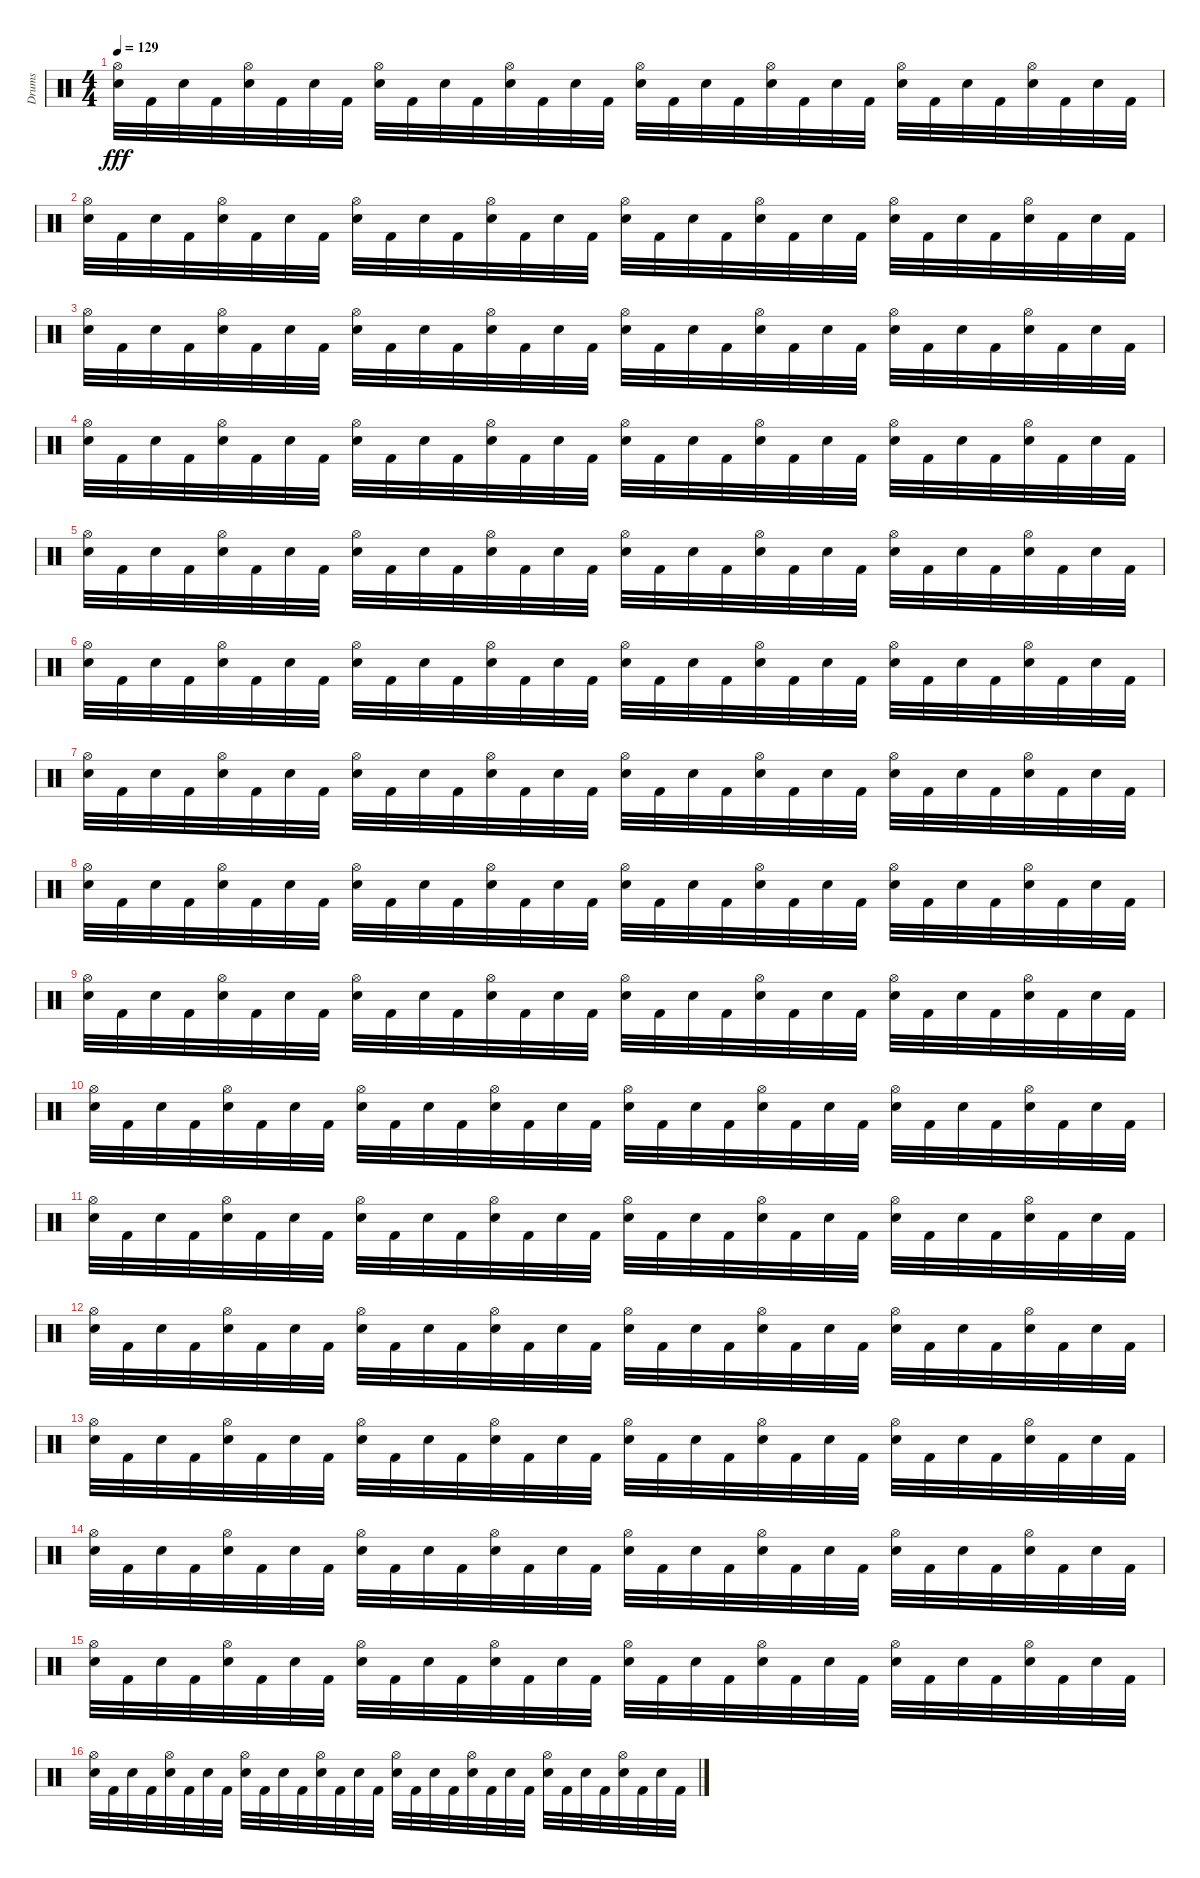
\track ("Drums" "Drums") {instrument percussion}
\staff {score}
\articulation defaults
\ts (4 4)
\tempo 129
\clef neutral
\ks c
("Snare (hit) 2" "Hi-Hat (open)").32{dy fff} "Kick (hit) 2".32 "Snare (hit) 2".32 "Kick (hit) 2".32 ("Snare (hit) 2" "Hi-Hat (open)").32 "Kick (hit) 2".32 "Snare (hit) 2".32 "Kick (hit) 2".32 ("Snare (hit) 2" "Hi-Hat (open)").32 "Kick (hit) 2".32 "Snare (hit) 2".32 "Kick (hit) 2".32 ("Snare (hit) 2" "Hi-Hat (open)").32 "Kick (hit) 2".32 "Snare (hit) 2".32 "Kick (hit) 2".32 ("Snare (hit) 2" "Hi-Hat (open)").32 "Kick (hit) 2".32 "Snare (hit) 2".32 "Kick (hit) 2".32 ("Snare (hit) 2" "Hi-Hat (open)").32 "Kick (hit) 2".32 "Snare (hit) 2".32 "Kick (hit) 2".32 ("Snare (hit) 2" "Hi-Hat (open)").32 "Kick (hit) 2".32 "Snare (hit) 2".32 "Kick (hit) 2".32 ("Snare (hit) 2" "Hi-Hat (open)").32 "Kick (hit) 2".32 "Snare (hit) 2".32 "Kick (hit) 2".32 |
("Snare (hit) 2" "Hi-Hat (open)").32 "Kick (hit) 2".32 "Snare (hit) 2".32 "Kick (hit) 2".32 ("Snare (hit) 2" "Hi-Hat (open)").32 "Kick (hit) 2".32 "Snare (hit) 2".32 "Kick (hit) 2".32 ("Snare (hit) 2" "Hi-Hat (open)").32 "Kick (hit) 2".32 "Snare (hit) 2".32 "Kick (hit) 2".32 ("Snare (hit) 2" "Hi-Hat (open)").32 "Kick (hit) 2".32 "Snare (hit) 2".32 "Kick (hit) 2".32 ("Snare (hit) 2" "Hi-Hat (open)").32 "Kick (hit) 2".32 "Snare (hit) 2".32 "Kick (hit) 2".32 ("Snare (hit) 2" "Hi-Hat (open)").32 "Kick (hit) 2".32 "Snare (hit) 2".32 "Kick (hit) 2".32 ("Snare (hit) 2" "Hi-Hat (open)").32 "Kick (hit) 2".32 "Snare (hit) 2".32 "Kick (hit) 2".32 ("Snare (hit) 2" "Hi-Hat (open)").32 "Kick (hit) 2".32 "Snare (hit) 2".32 "Kick (hit) 2".32 |
("Snare (hit) 2" "Hi-Hat (open)").32 "Kick (hit) 2".32 "Snare (hit) 2".32 "Kick (hit) 2".32 ("Snare (hit) 2" "Hi-Hat (open)").32 "Kick (hit) 2".32 "Snare (hit) 2".32 "Kick (hit) 2".32 ("Snare (hit) 2" "Hi-Hat (open)").32 "Kick (hit) 2".32 "Snare (hit) 2".32 "Kick (hit) 2".32 ("Snare (hit) 2" "Hi-Hat (open)").32 "Kick (hit) 2".32 "Snare (hit) 2".32 "Kick (hit) 2".32 ("Snare (hit) 2" "Hi-Hat (open)").32 "Kick (hit) 2".32 "Snare (hit) 2".32 "Kick (hit) 2".32 ("Snare (hit) 2" "Hi-Hat (open)").32 "Kick (hit) 2".32 "Snare (hit) 2".32 "Kick (hit) 2".32 ("Snare (hit) 2" "Hi-Hat (open)").32 "Kick (hit) 2".32 "Snare (hit) 2".32 "Kick (hit) 2".32 ("Snare (hit) 2" "Hi-Hat (open)").32 "Kick (hit) 2".32 "Snare (hit) 2".32 "Kick (hit) 2".32 |
("Snare (hit) 2" "Hi-Hat (open)").32 "Kick (hit) 2".32 "Snare (hit) 2".32 "Kick (hit) 2".32 ("Snare (hit) 2" "Hi-Hat (open)").32 "Kick (hit) 2".32 "Snare (hit) 2".32 "Kick (hit) 2".32 ("Snare (hit) 2" "Hi-Hat (open)").32 "Kick (hit) 2".32 "Snare (hit) 2".32 "Kick (hit) 2".32 ("Snare (hit) 2" "Hi-Hat (open)").32 "Kick (hit) 2".32 "Snare (hit) 2".32 "Kick (hit) 2".32 ("Snare (hit) 2" "Hi-Hat (open)").32 "Kick (hit) 2".32 "Snare (hit) 2".32 "Kick (hit) 2".32 ("Snare (hit) 2" "Hi-Hat (open)").32 "Kick (hit) 2".32 "Snare (hit) 2".32 "Kick (hit) 2".32 ("Snare (hit) 2" "Hi-Hat (open)").32 "Kick (hit) 2".32 "Snare (hit) 2".32 "Kick (hit) 2".32 ("Snare (hit) 2" "Hi-Hat (open)").32 "Kick (hit) 2".32 "Snare (hit) 2".32 "Kick (hit) 2".32 |
("Snare (hit) 2" "Hi-Hat (open)").32 "Kick (hit) 2".32 "Snare (hit) 2".32 "Kick (hit) 2".32 ("Snare (hit) 2" "Hi-Hat (open)").32 "Kick (hit) 2".32 "Snare (hit) 2".32 "Kick (hit) 2".32 ("Snare (hit) 2" "Hi-Hat (open)").32 "Kick (hit) 2".32 "Snare (hit) 2".32 "Kick (hit) 2".32 ("Snare (hit) 2" "Hi-Hat (open)").32 "Kick (hit) 2".32 "Snare (hit) 2".32 "Kick (hit) 2".32 ("Snare (hit) 2" "Hi-Hat (open)").32 "Kick (hit) 2".32 "Snare (hit) 2".32 "Kick (hit) 2".32 ("Snare (hit) 2" "Hi-Hat (open)").32 "Kick (hit) 2".32 "Snare (hit) 2".32 "Kick (hit) 2".32 ("Snare (hit) 2" "Hi-Hat (open)").32 "Kick (hit) 2".32 "Snare (hit) 2".32 "Kick (hit) 2".32 ("Snare (hit) 2" "Hi-Hat (open)").32 "Kick (hit) 2".32 "Snare (hit) 2".32 "Kick (hit) 2".32 |
("Snare (hit) 2" "Hi-Hat (open)").32 "Kick (hit) 2".32 "Snare (hit) 2".32 "Kick (hit) 2".32 ("Snare (hit) 2" "Hi-Hat (open)").32 "Kick (hit) 2".32 "Snare (hit) 2".32 "Kick (hit) 2".32 ("Snare (hit) 2" "Hi-Hat (open)").32 "Kick (hit) 2".32 "Snare (hit) 2".32 "Kick (hit) 2".32 ("Snare (hit) 2" "Hi-Hat (open)").32 "Kick (hit) 2".32 "Snare (hit) 2".32 "Kick (hit) 2".32 ("Snare (hit) 2" "Hi-Hat (open)").32 "Kick (hit) 2".32 "Snare (hit) 2".32 "Kick (hit) 2".32 ("Snare (hit) 2" "Hi-Hat (open)").32 "Kick (hit) 2".32 "Snare (hit) 2".32 "Kick (hit) 2".32 ("Snare (hit) 2" "Hi-Hat (open)").32 "Kick (hit) 2".32 "Snare (hit) 2".32 "Kick (hit) 2".32 ("Snare (hit) 2" "Hi-Hat (open)").32 "Kick (hit) 2".32 "Snare (hit) 2".32 "Kick (hit) 2".32 |
("Snare (hit) 2" "Hi-Hat (open)").32 "Kick (hit) 2".32 "Snare (hit) 2".32 "Kick (hit) 2".32 ("Snare (hit) 2" "Hi-Hat (open)").32 "Kick (hit) 2".32 "Snare (hit) 2".32 "Kick (hit) 2".32 ("Snare (hit) 2" "Hi-Hat (open)").32 "Kick (hit) 2".32 "Snare (hit) 2".32 "Kick (hit) 2".32 ("Snare (hit) 2" "Hi-Hat (open)").32 "Kick (hit) 2".32 "Snare (hit) 2".32 "Kick (hit) 2".32 ("Snare (hit) 2" "Hi-Hat (open)").32 "Kick (hit) 2".32 "Snare (hit) 2".32 "Kick (hit) 2".32 ("Snare (hit) 2" "Hi-Hat (open)").32 "Kick (hit) 2".32 "Snare (hit) 2".32 "Kick (hit) 2".32 ("Snare (hit) 2" "Hi-Hat (open)").32 "Kick (hit) 2".32 "Snare (hit) 2".32 "Kick (hit) 2".32 ("Snare (hit) 2" "Hi-Hat (open)").32 "Kick (hit) 2".32 "Snare (hit) 2".32 "Kick (hit) 2".32 |
("Snare (hit) 2" "Hi-Hat (open)").32 "Kick (hit) 2".32 "Snare (hit) 2".32 "Kick (hit) 2".32 ("Snare (hit) 2" "Hi-Hat (open)").32 "Kick (hit) 2".32 "Snare (hit) 2".32 "Kick (hit) 2".32 ("Snare (hit) 2" "Hi-Hat (open)").32 "Kick (hit) 2".32 "Snare (hit) 2".32 "Kick (hit) 2".32 ("Snare (hit) 2" "Hi-Hat (open)").32 "Kick (hit) 2".32 "Snare (hit) 2".32 "Kick (hit) 2".32 ("Snare (hit) 2" "Hi-Hat (open)").32 "Kick (hit) 2".32 "Snare (hit) 2".32 "Kick (hit) 2".32 ("Snare (hit) 2" "Hi-Hat (open)").32 "Kick (hit) 2".32 "Snare (hit) 2".32 "Kick (hit) 2".32 ("Snare (hit) 2" "Hi-Hat (open)").32 "Kick (hit) 2".32 "Snare (hit) 2".32 "Kick (hit) 2".32 ("Snare (hit) 2" "Hi-Hat (open)").32 "Kick (hit) 2".32 "Snare (hit) 2".32 "Kick (hit) 2".32 |
("Snare (hit) 2" "Hi-Hat (open)").32 "Kick (hit) 2".32 "Snare (hit) 2".32 "Kick (hit) 2".32 ("Snare (hit) 2" "Hi-Hat (open)").32 "Kick (hit) 2".32 "Snare (hit) 2".32 "Kick (hit) 2".32 ("Snare (hit) 2" "Hi-Hat (open)").32 "Kick (hit) 2".32 "Snare (hit) 2".32 "Kick (hit) 2".32 ("Snare (hit) 2" "Hi-Hat (open)").32 "Kick (hit) 2".32 "Snare (hit) 2".32 "Kick (hit) 2".32 ("Snare (hit) 2" "Hi-Hat (open)").32 "Kick (hit) 2".32 "Snare (hit) 2".32 "Kick (hit) 2".32 ("Snare (hit) 2" "Hi-Hat (open)").32 "Kick (hit) 2".32 "Snare (hit) 2".32 "Kick (hit) 2".32 ("Snare (hit) 2" "Hi-Hat (open)").32 "Kick (hit) 2".32 "Snare (hit) 2".32 "Kick (hit) 2".32 ("Snare (hit) 2" "Hi-Hat (open)").32 "Kick (hit) 2".32 "Snare (hit) 2".32 "Kick (hit) 2".32 |
("Snare (hit) 2" "Hi-Hat (open)").32 "Kick (hit) 2".32 "Snare (hit) 2".32 "Kick (hit) 2".32 ("Snare (hit) 2" "Hi-Hat (open)").32 "Kick (hit) 2".32 "Snare (hit) 2".32 "Kick (hit) 2".32 ("Snare (hit) 2" "Hi-Hat (open)").32 "Kick (hit) 2".32 "Snare (hit) 2".32 "Kick (hit) 2".32 ("Snare (hit) 2" "Hi-Hat (open)").32 "Kick (hit) 2".32 "Snare (hit) 2".32 "Kick (hit) 2".32 ("Snare (hit) 2" "Hi-Hat (open)").32 "Kick (hit) 2".32 "Snare (hit) 2".32 "Kick (hit) 2".32 ("Snare (hit) 2" "Hi-Hat (open)").32 "Kick (hit) 2".32 "Snare (hit) 2".32 "Kick (hit) 2".32 ("Snare (hit) 2" "Hi-Hat (open)").32 "Kick (hit) 2".32 "Snare (hit) 2".32 "Kick (hit) 2".32 ("Snare (hit) 2" "Hi-Hat (open)").32 "Kick (hit) 2".32 "Snare (hit) 2".32 "Kick (hit) 2".32 |
("Snare (hit) 2" "Hi-Hat (open)").32 "Kick (hit) 2".32 "Snare (hit) 2".32 "Kick (hit) 2".32 ("Snare (hit) 2" "Hi-Hat (open)").32 "Kick (hit) 2".32 "Snare (hit) 2".32 "Kick (hit) 2".32 ("Snare (hit) 2" "Hi-Hat (open)").32 "Kick (hit) 2".32 "Snare (hit) 2".32 "Kick (hit) 2".32 ("Snare (hit) 2" "Hi-Hat (open)").32 "Kick (hit) 2".32 "Snare (hit) 2".32 "Kick (hit) 2".32 ("Snare (hit) 2" "Hi-Hat (open)").32 "Kick (hit) 2".32 "Snare (hit) 2".32 "Kick (hit) 2".32 ("Snare (hit) 2" "Hi-Hat (open)").32 "Kick (hit) 2".32 "Snare (hit) 2".32 "Kick (hit) 2".32 ("Snare (hit) 2" "Hi-Hat (open)").32 "Kick (hit) 2".32 "Snare (hit) 2".32 "Kick (hit) 2".32 ("Snare (hit) 2" "Hi-Hat (open)").32 "Kick (hit) 2".32 "Snare (hit) 2".32 "Kick (hit) 2".32 |
("Snare (hit) 2" "Hi-Hat (open)").32 "Kick (hit) 2".32 "Snare (hit) 2".32 "Kick (hit) 2".32 ("Snare (hit) 2" "Hi-Hat (open)").32 "Kick (hit) 2".32 "Snare (hit) 2".32 "Kick (hit) 2".32 ("Snare (hit) 2" "Hi-Hat (open)").32 "Kick (hit) 2".32 "Snare (hit) 2".32 "Kick (hit) 2".32 ("Snare (hit) 2" "Hi-Hat (open)").32 "Kick (hit) 2".32 "Snare (hit) 2".32 "Kick (hit) 2".32 ("Snare (hit) 2" "Hi-Hat (open)").32 "Kick (hit) 2".32 "Snare (hit) 2".32 "Kick (hit) 2".32 ("Snare (hit) 2" "Hi-Hat (open)").32 "Kick (hit) 2".32 "Snare (hit) 2".32 "Kick (hit) 2".32 ("Snare (hit) 2" "Hi-Hat (open)").32 "Kick (hit) 2".32 "Snare (hit) 2".32 "Kick (hit) 2".32 ("Snare (hit) 2" "Hi-Hat (open)").32 "Kick (hit) 2".32 "Snare (hit) 2".32 "Kick (hit) 2".32 |
("Snare (hit) 2" "Hi-Hat (open)").32 "Kick (hit) 2".32 "Snare (hit) 2".32 "Kick (hit) 2".32 ("Snare (hit) 2" "Hi-Hat (open)").32 "Kick (hit) 2".32 "Snare (hit) 2".32 "Kick (hit) 2".32 ("Snare (hit) 2" "Hi-Hat (open)").32 "Kick (hit) 2".32 "Snare (hit) 2".32 "Kick (hit) 2".32 ("Snare (hit) 2" "Hi-Hat (open)").32 "Kick (hit) 2".32 "Snare (hit) 2".32 "Kick (hit) 2".32 ("Snare (hit) 2" "Hi-Hat (open)").32 "Kick (hit) 2".32 "Snare (hit) 2".32 "Kick (hit) 2".32 ("Snare (hit) 2" "Hi-Hat (open)").32 "Kick (hit) 2".32 "Snare (hit) 2".32 "Kick (hit) 2".32 ("Snare (hit) 2" "Hi-Hat (open)").32 "Kick (hit) 2".32 "Snare (hit) 2".32 "Kick (hit) 2".32 ("Snare (hit) 2" "Hi-Hat (open)").32 "Kick (hit) 2".32 "Snare (hit) 2".32 "Kick (hit) 2".32 |
("Snare (hit) 2" "Hi-Hat (open)").32 "Kick (hit) 2".32 "Snare (hit) 2".32 "Kick (hit) 2".32 ("Snare (hit) 2" "Hi-Hat (open)").32 "Kick (hit) 2".32 "Snare (hit) 2".32 "Kick (hit) 2".32 ("Snare (hit) 2" "Hi-Hat (open)").32 "Kick (hit) 2".32 "Snare (hit) 2".32 "Kick (hit) 2".32 ("Snare (hit) 2" "Hi-Hat (open)").32 "Kick (hit) 2".32 "Snare (hit) 2".32 "Kick (hit) 2".32 ("Snare (hit) 2" "Hi-Hat (open)").32 "Kick (hit) 2".32 "Snare (hit) 2".32 "Kick (hit) 2".32 ("Snare (hit) 2" "Hi-Hat (open)").32 "Kick (hit) 2".32 "Snare (hit) 2".32 "Kick (hit) 2".32 ("Snare (hit) 2" "Hi-Hat (open)").32 "Kick (hit) 2".32 "Snare (hit) 2".32 "Kick (hit) 2".32 ("Snare (hit) 2" "Hi-Hat (open)").32 "Kick (hit) 2".32 "Snare (hit) 2".32 "Kick (hit) 2".32 |
("Snare (hit) 2" "Hi-Hat (open)").32 "Kick (hit) 2".32 "Snare (hit) 2".32 "Kick (hit) 2".32 ("Snare (hit) 2" "Hi-Hat (open)").32 "Kick (hit) 2".32 "Snare (hit) 2".32 "Kick (hit) 2".32 ("Snare (hit) 2" "Hi-Hat (open)").32 "Kick (hit) 2".32 "Snare (hit) 2".32 "Kick (hit) 2".32 ("Snare (hit) 2" "Hi-Hat (open)").32 "Kick (hit) 2".32 "Snare (hit) 2".32 "Kick (hit) 2".32 ("Snare (hit) 2" "Hi-Hat (open)").32 "Kick (hit) 2".32 "Snare (hit) 2".32 "Kick (hit) 2".32 ("Snare (hit) 2" "Hi-Hat (open)").32 "Kick (hit) 2".32 "Snare (hit) 2".32 "Kick (hit) 2".32 ("Snare (hit) 2" "Hi-Hat (open)").32 "Kick (hit) 2".32 "Snare (hit) 2".32 "Kick (hit) 2".32 ("Snare (hit) 2" "Hi-Hat (open)").32 "Kick (hit) 2".32 "Snare (hit) 2".32 "Kick (hit) 2".32 |
("Snare (hit) 2" "Hi-Hat (open)").32 "Kick (hit) 2".32 "Snare (hit) 2".32 "Kick (hit) 2".32 ("Snare (hit) 2" "Hi-Hat (open)").32 "Kick (hit) 2".32 "Snare (hit) 2".32 "Kick (hit) 2".32 ("Snare (hit) 2" "Hi-Hat (open)").32 "Kick (hit) 2".32 "Snare (hit) 2".32 "Kick (hit) 2".32 ("Snare (hit) 2" "Hi-Hat (open)").32 "Kick (hit) 2".32 "Snare (hit) 2".32 "Kick (hit) 2".32 ("Snare (hit) 2" "Hi-Hat (open)").32 "Kick (hit) 2".32 "Snare (hit) 2".32 "Kick (hit) 2".32 ("Snare (hit) 2" "Hi-Hat (open)").32 "Kick (hit) 2".32 "Snare (hit) 2".32 "Kick (hit) 2".32 ("Snare (hit) 2" "Hi-Hat (open)").32 "Kick (hit) 2".32 "Snare (hit) 2".32 "Kick (hit) 2".32 ("Snare (hit) 2" "Hi-Hat (open)").32 "Kick (hit) 2".32 "Snare (hit) 2".32 "Kick (hit) 2".32
